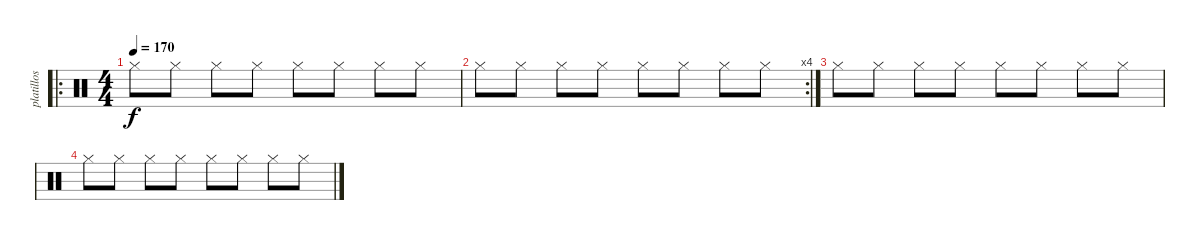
\track ("platillos" "platillos") {instrument percussion}
\staff {score}
\articulation defaults
\ro
\ts (4 4)
\tempo 170
\clef neutral
\ks c "Hi-Hat (closed)".8{dy f} "Hi-Hat (closed)".8 "Hi-Hat (closed)".8 "Hi-Hat (closed)".8 "Hi-Hat (closed)".8 "Hi-Hat (closed)".8 "Hi-Hat (closed)".8 "Hi-Hat (closed)".8
|
\rc 4 "Hi-Hat (closed)".8 "Hi-Hat (closed)".8 "Hi-Hat (closed)".8 "Hi-Hat (closed)".8 "Hi-Hat (closed)".8 "Hi-Hat (closed)".8 "Hi-Hat (closed)".8 "Hi-Hat (closed)".8
|
"Hi-Hat (closed)".8 "Hi-Hat (closed)".8 "Hi-Hat (closed)".8 "Hi-Hat (closed)".8 "Hi-Hat (closed)".8 "Hi-Hat (closed)".8 "Hi-Hat (closed)".8 "Hi-Hat (closed)".8 |
"Hi-Hat (closed)".8 "Hi-Hat (closed)".8 "Hi-Hat (closed)".8 "Hi-Hat (closed)".8 "Hi-Hat (closed)".8 "Hi-Hat (closed)".8 "Hi-Hat (closed)".8 "Hi-Hat (closed)".8
